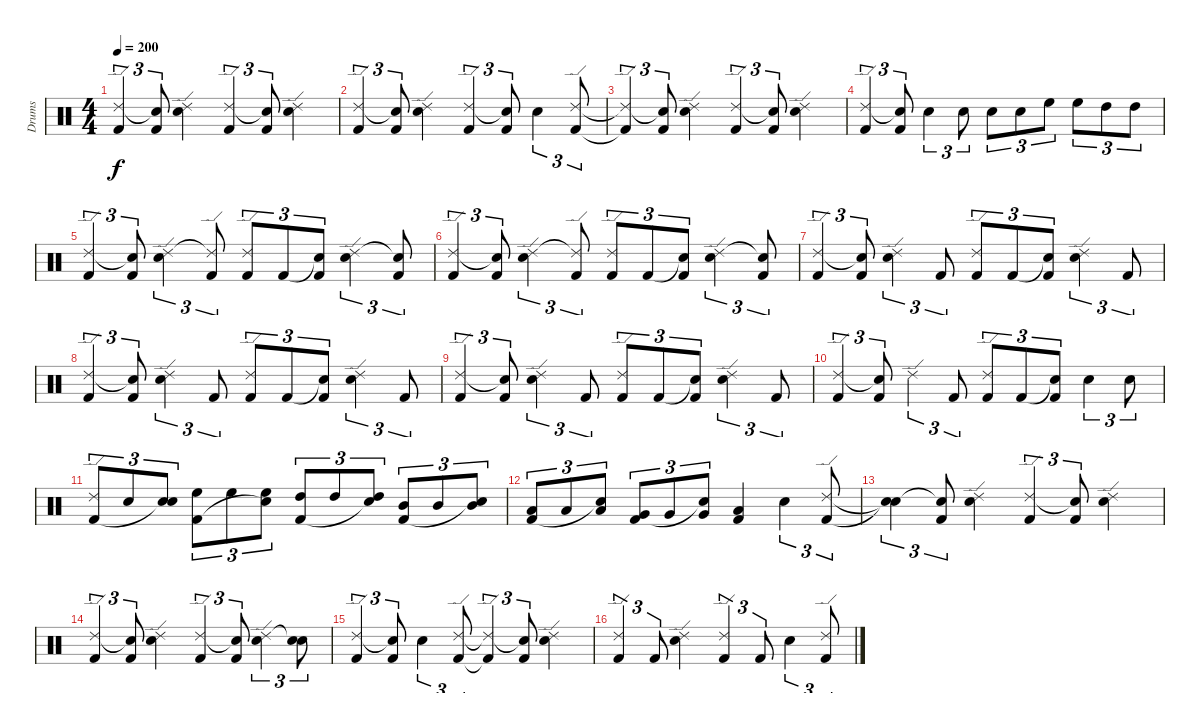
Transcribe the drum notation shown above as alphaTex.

\track ("Drums" "Drums") {instrument percussion}
\staff {score}
\articulation defaults
\ts (4 4)
\tempo 200
\clef neutral
\ks c
("Ride (edge) 2" "Kick (hit) 2").4{tu (3 2) dy f} ("Snare (hit)"{t} "Kick (hit) 2").8{tu (3 2)} ("Ride (edge) 2" "Snare (hit) 2").4 ("Ride (edge) 2" "Kick (hit) 2").4{tu (3 2)} ("Snare (hit)"{t} "Kick (hit) 2").8{tu (3 2)} ("Ride (edge) 2" "Snare (hit) 2").4 |
("Ride (edge) 2" "Kick (hit) 2").4{tu (3 2)} ("Snare (hit)"{t} "Kick (hit) 2").8{tu (3 2)} ("Ride (edge) 2" "Snare (hit) 2").4 ("Ride (edge) 2" "Kick (hit) 2").4{tu (3 2)} ("Snare (hit)"{t} "Kick (hit) 2").8{tu (3 2)} "Snare (hit) 2".4{tu (3 2)} ("Ride (edge) 2" "Kick (hit) 2").8{tu (3 2)} |
("Ride (edge) 2"{t} "Kick (hit) 2"{t}).4{tu (3 2)} ("Snare (hit)"{t} "Kick (hit) 2").8{tu (3 2)} ("Ride (edge) 2" "Snare (hit) 2").4 ("Ride (edge) 2" "Kick (hit) 2").4{tu (3 2)} ("Snare (hit)"{t} "Kick (hit) 2").8{tu (3 2)} ("Ride (edge) 2" "Snare (hit) 2").4 |
("Ride (edge) 2" "Kick (hit) 2").4{tu (3 2)} ("Snare (hit)"{t} "Kick (hit) 2").8{tu (3 2)} "Snare (hit) 2".4{tu (3 2)} "Snare (hit) 2".8{tu (3 2)} "Snare (hit) 2".8{tu (3 2)} "Snare (hit) 2".8{tu (3 2)} "High Floor Tom (hit)".8{tu (3 2)} "High Floor Tom (hit)".8{tu (3 2)} "High Tom (hit)".8{tu (3 2)} "High Tom (hit)".8{tu (3 2)} |
("Ride (edge) 2" "Kick (hit) 2").4{tu (3 2)} ("Snare (hit)"{t} "Kick (hit) 2").8{tu (3 2)} ("Ride (edge) 2" "Snare (hit) 2").4{tu (3 2)} ("Ride (edge) 2"{t} "Kick (hit) 2").8{tu (3 2)} ("Ride (edge) 2" "Kick (hit) 2").8{tu (3 2)} "Kick (hit) 2".8{tu (3 2)} ("Snare (hit)"{t} "Kick (hit) 2").8{tu (3 2)} ("Ride (edge) 2" "Snare (hit) 2").4{tu (3 2)} ("Snare (hit)"{t} "Kick (hit) 2").8{tu (3 2)} |
("Ride (edge) 2" "Kick (hit) 2").4{tu (3 2)} ("Snare (hit)"{t} "Kick (hit) 2").8{tu (3 2)} ("Ride (edge) 2" "Snare (hit) 2").4{tu (3 2)} ("Ride (edge) 2"{t} "Kick (hit) 2").8{tu (3 2)} ("Ride (edge) 2" "Kick (hit) 2").8{tu (3 2)} "Kick (hit) 2".8{tu (3 2)} ("Snare (hit)"{t} "Kick (hit) 2").8{tu (3 2)} ("Ride (edge) 2" "Snare (hit) 2").4{tu (3 2)} ("Snare (hit)"{t} "Kick (hit) 2").8{tu (3 2)} |
("Ride (edge) 2" "Kick (hit) 2").4{tu (3 2)} ("Snare (hit)"{t} "Kick (hit) 2").8{tu (3 2)} ("Ride (edge) 2" "Snare (hit) 2").4{tu (3 2)} "Kick (hit) 2".8{tu (3 2)} ("Ride (edge) 2" "Kick (hit) 2").8{tu (3 2)} "Kick (hit) 2".8{tu (3 2)} ("Snare (hit)"{t} "Kick (hit) 2").8{tu (3 2)} ("Ride (edge) 2" "Snare (hit) 2").4{tu (3 2)} "Kick (hit) 2".8{tu (3 2)} |
("Ride (edge) 2" "Kick (hit) 2").4{tu (3 2)} ("Snare (hit)"{t} "Kick (hit) 2").8{tu (3 2)} ("Ride (edge) 2" "Snare (hit) 2").4{tu (3 2)} "Kick (hit) 2".8{tu (3 2)} ("Ride (edge) 2" "Kick (hit) 2").8{tu (3 2)} "Kick (hit) 2".8{tu (3 2)} ("Snare (hit)"{t} "Kick (hit) 2").8{tu (3 2)} ("Ride (edge) 2" "Snare (hit) 2").4{tu (3 2)} "Kick (hit) 2".8{tu (3 2)} |
("Ride (edge) 2" "Kick (hit) 2").4{tu (3 2)} ("Snare (hit)"{t} "Kick (hit) 2").8{tu (3 2)} ("Ride (edge) 2" "Snare (hit) 2").4{tu (3 2)} "Kick (hit) 2".8{tu (3 2)} ("Ride (edge) 2" "Kick (hit) 2").8{tu (3 2)} "Kick (hit) 2".8{tu (3 2)} ("Snare (hit)"{t} "Kick (hit) 2").8{tu (3 2)} ("Ride (edge) 2" "Snare (hit) 2").4{tu (3 2)} "Kick (hit) 2".8{tu (3 2)} |
("Ride (edge) 2" "Kick (hit) 2").4{tu (3 2)} ("Snare (hit)"{t} "Kick (hit) 2").8{tu (3 2)} "Ride (edge) 2".4{tu (3 2)} "Kick (hit) 2".8{tu (3 2)} ("Ride (edge) 2" "Kick (hit) 2").8{tu (3 2)} "Kick (hit) 2".8{tu (3 2)} ("Snare (hit)"{t} "Kick (hit) 2").8{tu (3 2)} "Snare (hit) 2".4{tu (3 2)} "Snare (hit) 2".8{tu (3 2)} |
("Ride (edge) 2" "Kick (hit) 2").8{tu (3 2)} "Snare (hit) 2".8{tu (3 2)} ("Snare (hit) 2" "Snare (hit)"{t}).8{tu (3 2)} ("High Floor Tom (hit)" "Kick (hit) 2").8{tu (3 2)} "High Floor Tom (hit)".8{tu (3 2)} ("High Floor Tom (hit)" "Snare (hit)"{t}).8{tu (3 2)} ("High Tom (hit)" "Kick (hit) 2").8{tu (3 2)} "High Tom (hit)".8{tu (3 2)} ("High Tom (hit)" "Snare (hit)"{t}).8{tu (3 2)} ("Mid Tom (hit)" "Kick (hit) 2").8{tu (3 2)} "Mid Tom (hit)".8{tu (3 2)} ("Mid Tom (hit)" "Snare (hit)"{t}).8{tu (3 2)} |
("Low Tom (hit)" "Kick (hit) 2").8{tu (3 2)} "Low Tom (hit)".8{tu (3 2)} ("Low Tom (hit)" "Snare (hit)"{t}).8{tu (3 2)} ("Very Low Tom (hit)" "Kick (hit) 2").8{tu (3 2)} "Very Low Tom (hit)".8{tu (3 2)} ("Very Low Tom (hit)" "Snare (hit)"{t}).8{tu (3 2)} ("Low Floor Tom (hit)" "Kick (hit) 2").4 "Snare (hit) 2".4{tu (3 2)} ("Ride (edge) 2" "Kick (hit) 2").8{tu (3 2)} |
("Snare (hit)"{t} "Snare (hit)"{t}).4{tu (3 2)} ("Snare (hit)"{t} "Kick (hit) 2").8{tu (3 2)} ("Ride (edge) 2" "Snare (hit) 2").4 ("Ride (edge) 2" "Kick (hit) 2").4{tu (3 2)} ("Snare (hit)"{t} "Kick (hit) 2").8{tu (3 2)} ("Ride (edge) 2" "Snare (hit) 2").4 |
("Ride (edge) 2" "Kick (hit) 2").4{tu (3 2)} ("Snare (hit)"{t} "Kick (hit) 2").8{tu (3 2)} ("Ride (edge) 2" "Snare (hit) 2").4 ("Ride (edge) 2" "Kick (hit) 2").4{tu (3 2)} ("Snare (hit)"{t} "Kick (hit) 2").8{tu (3 2)} ("Ride (edge) 2" "Snare (hit) 2").4{tu (3 2)} ("Snare (hit)"{t} "Snare (hit) 2").8{tu (3 2)} |
("Ride (edge) 2" "Kick (hit) 2").4{tu (3 2)} ("Snare (hit)"{t} "Kick (hit) 2").8{tu (3 2)} "Snare (hit) 2".4{tu (3 2)} ("Ride (edge) 2" "Kick (hit) 2").8{tu (3 2)} ("Ride (edge) 2"{t} "Kick (hit) 2"{t}).4{tu (3 2)} ("Snare (hit)"{t} "Kick (hit) 2").8{tu (3 2)} ("Ride (edge) 2" "Snare (hit) 2").4 |
("Ride (edge) 2" "Kick (hit) 2").4{tu (3 2)} "Kick (hit) 2".8{tu (3 2)} ("Ride (edge) 2" "Snare (hit) 2").4 ("Ride (edge) 2" "Kick (hit) 2").4{tu (3 2)} "Kick (hit) 2".8{tu (3 2)} "Snare (hit) 2".4{tu (3 2)} ("Ride (edge) 2" "Kick (hit) 2").8{tu (3 2)}
